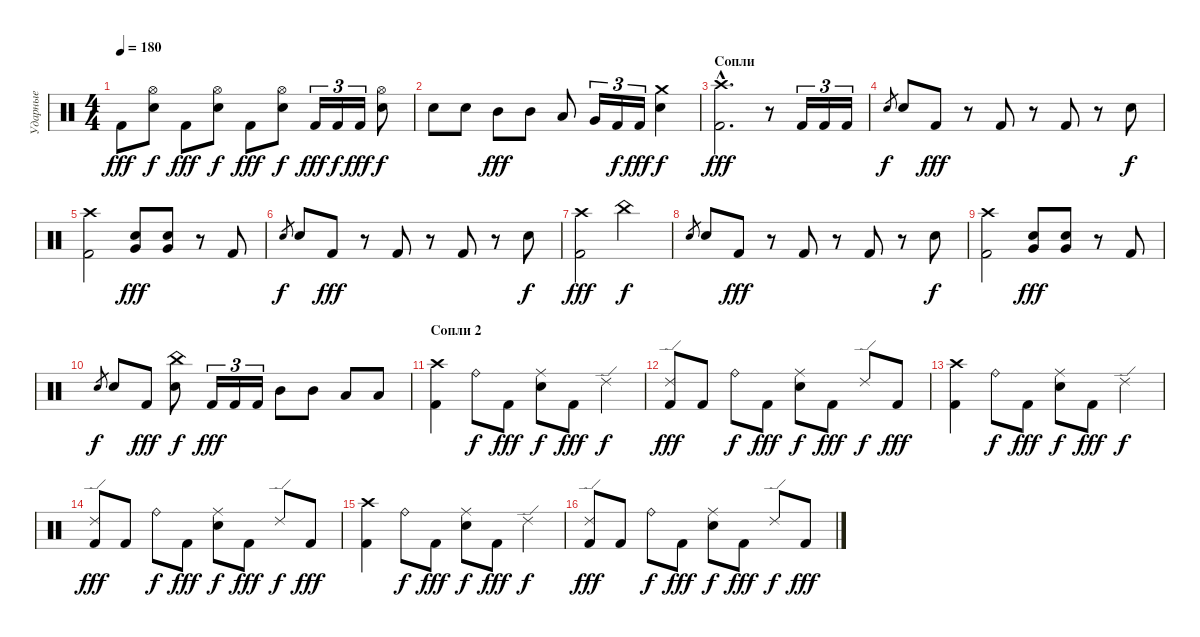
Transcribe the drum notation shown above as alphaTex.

\track ("Ударные" "Ударные") {instrument percussion}
\staff {score}
\articulation defaults
\ts (4 4)
\tempo 180
\clef neutral
\ks c "Kick (hit) 2".8{dy fff}
("Snare (hit) 2" "Hi-Hat (open)").8{dy f} "Kick (hit) 2".8{dy fff} ("Snare (hit) 2" "Hi-Hat (open)").8{dy f} "Kick (hit) 2".8{dy fff} ("Snare (hit) 2" "Hi-Hat (open)").8{dy f} "Kick (hit) 2".16{tu (3 2) dy fff} "Kick (hit) 2".16{tu (3 2) dy f} "Kick (hit) 2".16{tu (3 2) dy fff} ("Snare (hit) 2" "Hi-Hat (open)").8{dy f} |
"Snare (hit) 2".8 "Snare (hit) 2".8 "Mid Tom (hit)".8{dy fff} "Mid Tom (hit)".8 "Low Tom (hit)".8 "Very Low Tom (hit)".16{tu (3 2)} "Kick (hit) 2".16{tu (3 2) dy f} "Kick (hit) 2".16{tu (3 2) dy fff} ("Snare (hit) 2" "Crash medium (hit)").4{dy f} |
\section ("" "Сопли")
("Kick (hit) 2"{hac} "Crash high (hit)"{hac}).2{d dy fff} r.8 "Kick (hit) 2".16{tu (3 2)} "Kick (hit) 2".16{tu (3 2)} "Kick (hit) 2".16{tu (3 2)} |
"Snare (hit) 2".8{gr dy f} "Snare (hit) 2".8 "Kick (hit) 2".8{dy fff} r.8 "Kick (hit) 2".8 r.8 "Kick (hit) 2".8 r.8 "Snare (hit) 2".8{dy f} |
("Kick (hit) 2" "Crash high (hit)").2 ("Snare (hit) 2" "Very Low Tom (hit)").8{dy fff} ("Snare (hit) 2" "Very Low Tom (hit)").8 r.8 "Kick (hit) 2".8 |
"Snare (hit) 2".8{gr dy f} "Snare (hit) 2".8 "Kick (hit) 2".8{dy fff} r.8 "Kick (hit) 2".8 r.8 "Kick (hit) 2".8 r.8 "Snare (hit) 2".8{dy f} |
("Kick (hit) 2" "Crash high (hit)").2{dy fff} "China (hit)".2{dy f} |
"Snare (hit) 2".8{gr} "Snare (hit) 2".8 "Kick (hit) 2".8{dy fff} r.8 "Kick (hit) 2".8 r.8 "Kick (hit) 2".8 r.8 "Snare (hit) 2".8{dy f} |
("Kick (hit) 2" "Crash high (hit)").2 ("Snare (hit) 2" "Very Low Tom (hit)").8{dy fff} ("Snare (hit) 2" "Very Low Tom (hit)").8 r.8 "Kick (hit) 2".8 |
"Snare (hit) 2".8{gr dy f} "Snare (hit) 2".8 "Kick (hit) 2".8{dy fff} ("Snare (hit) 2" "China (hit)").8{dy f} "Kick (hit) 2".16{tu (3 2) dy fff} "Kick (hit) 2".16{tu (3 2)} "Kick (hit) 2".16{tu (3 2)} "Mid Tom (hit)".8 "Mid Tom (hit)".8 "Low Tom (hit)".8 "Low Tom (hit)".8 |
\section ("" "Сопли 2")
("Kick (hit) 2" "Crash high (hit)").4 "Ride (bell)".8{dy f} "Kick (hit) 2".8{dy fff} ("Snare (hit) 2" "Ride (middle)").8{dy f} "Kick (hit) 2".8{dy fff} "Ride (edge) 2".4{dy f} |
("Kick (hit) 2" "Ride (edge) 2").8{dy fff} "Kick (hit) 2".8 "Ride (bell)".8{dy f} "Kick (hit) 2".8{dy fff} ("Snare (hit) 2" "Ride (middle)").8{dy f} "Kick (hit) 2".8{dy fff} "Ride (edge) 2".8{dy f} "Kick (hit) 2".8{dy fff} |
("Kick (hit) 2" "Crash high (hit)").4 "Ride (bell)".8{dy f} "Kick (hit) 2".8{dy fff} ("Snare (hit) 2" "Ride (middle)").8{dy f} "Kick (hit) 2".8{dy fff} "Ride (edge) 2".4{dy f} |
("Kick (hit) 2" "Ride (edge) 2").8{dy fff} "Kick (hit) 2".8 "Ride (bell)".8{dy f} "Kick (hit) 2".8{dy fff} ("Snare (hit) 2" "Ride (middle)").8{dy f} "Kick (hit) 2".8{dy fff} "Ride (edge) 2".8{dy f} "Kick (hit) 2".8{dy fff} |
("Kick (hit) 2" "Crash high (hit)").4 "Ride (bell)".8{dy f} "Kick (hit) 2".8{dy fff} ("Snare (hit) 2" "Ride (middle)").8{dy f} "Kick (hit) 2".8{dy fff} "Ride (edge) 2".4{dy f} |
("Kick (hit) 2" "Ride (edge) 2").8{dy fff} "Kick (hit) 2".8 "Ride (bell)".8{dy f} "Kick (hit) 2".8{dy fff} ("Snare (hit) 2" "Ride (middle)").8{dy f} "Kick (hit) 2".8{dy fff} "Ride (edge) 2".8{dy f} "Kick (hit) 2".8{dy fff}
